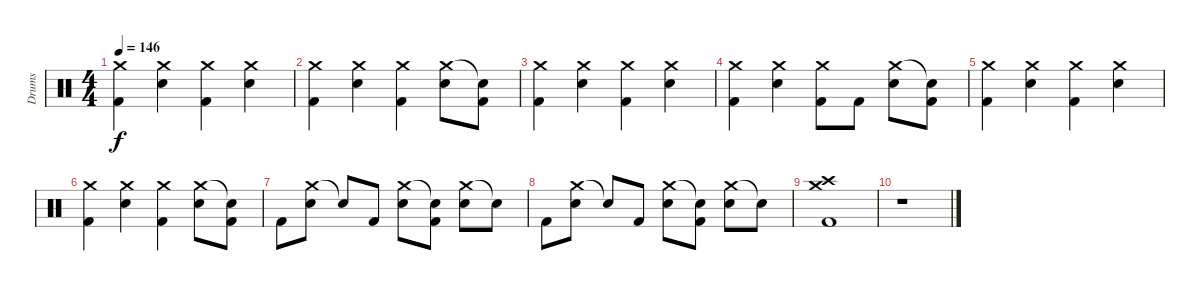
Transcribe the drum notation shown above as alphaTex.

\track ("Drums" "Drums") {instrument percussion}
\staff {score}
\articulation defaults
\ts (4 4)
\tempo 146
\clef neutral
\ks c
("Crash medium (hit)" "Kick (hit) 2").4{dy f} ("Crash medium (hit)" "Electric Snare (hit)").4 ("Crash medium (hit)" "Kick (hit) 2").4 ("Crash medium (hit)" "Electric Snare (hit)").4 |
("Crash medium (hit)" "Kick (hit) 2").4 ("Crash medium (hit)" "Electric Snare (hit)").4 ("Crash medium (hit)" "Kick (hit) 2").4 ("Crash medium (hit)" "Electric Snare (hit)").8 ("Snare (hit)"{t} "Kick (hit) 2").8 |
("Crash medium (hit)" "Kick (hit) 2").4 ("Crash medium (hit)" "Electric Snare (hit)").4 ("Crash medium (hit)" "Kick (hit) 2").4 ("Crash medium (hit)" "Electric Snare (hit)").4 |
("Crash medium (hit)" "Kick (hit) 2").4 ("Crash medium (hit)" "Electric Snare (hit)").4 ("Crash medium (hit)" "Kick (hit) 2").8 "Kick (hit) 2".8 ("Crash medium (hit)" "Electric Snare (hit)").8 ("Snare (hit)"{t} "Kick (hit) 2").8 |
("Crash medium (hit)" "Kick (hit) 2").4 ("Crash medium (hit)" "Electric Snare (hit)").4 ("Crash medium (hit)" "Kick (hit) 2").4 ("Crash medium (hit)" "Electric Snare (hit)").4 |
("Crash medium (hit)" "Kick (hit) 2").4 ("Crash medium (hit)" "Electric Snare (hit)").4 ("Crash medium (hit)" "Kick (hit) 2").4 ("Crash medium (hit)" "Electric Snare (hit)").8 ("Snare (hit)"{t} "Kick (hit) 2").8 |
"Kick (hit) 2".8 ("Crash medium (hit)" "Electric Snare (hit)").8 "Snare (hit)"{t}.8 "Kick (hit) 2".8 ("Crash medium (hit)" "Electric Snare (hit)").8 ("Snare (hit)"{t} "Kick (hit) 2").8 ("Crash medium (hit)" "Electric Snare (hit)").8 "Snare (hit)"{t}.8 |
"Kick (hit) 2".8 ("Crash medium (hit)" "Electric Snare (hit)").8 "Snare (hit)"{t}.8 "Kick (hit) 2".8 ("Crash medium (hit)" "Electric Snare (hit)").8 ("Snare (hit)"{t} "Kick (hit) 2").8 ("Crash medium (hit)" "Electric Snare (hit)").8 "Snare (hit)"{t}.8 |
("Crash medium (hit)" "Crash high (hit)" "Kick (hit) 2").1 |
r.1
